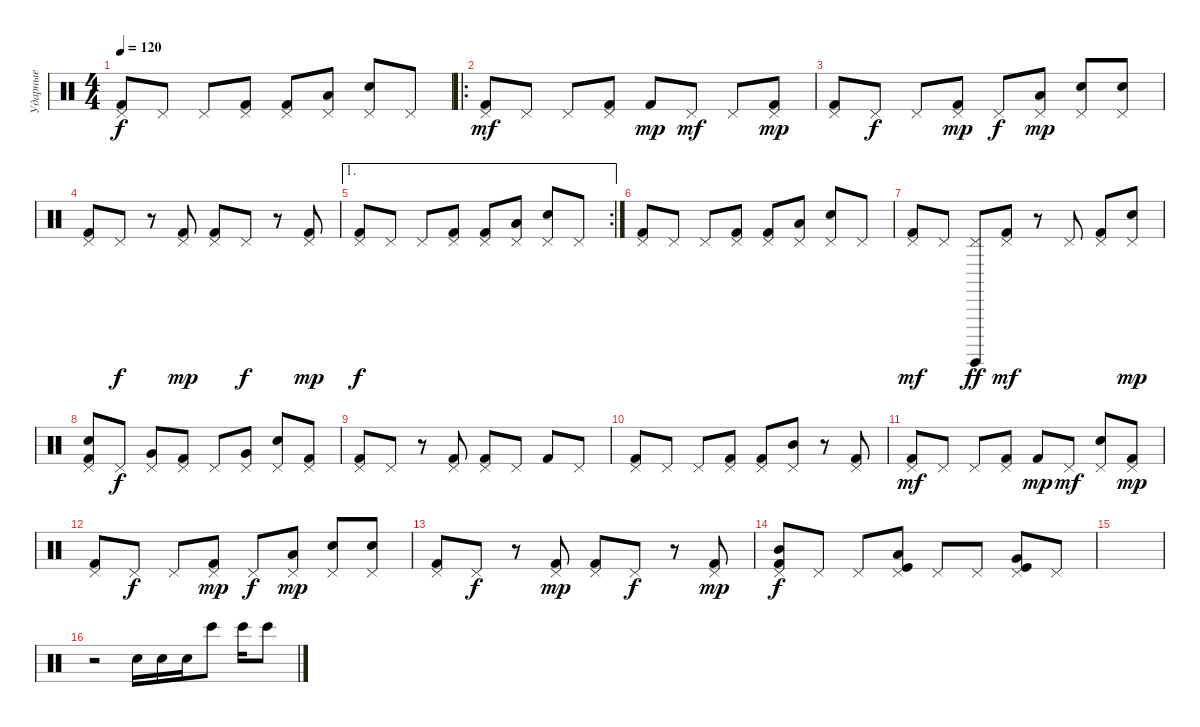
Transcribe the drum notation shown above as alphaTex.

\track ("Ударные" "Ударные") {instrument percussion}
\staff {score}
\articulation defaults
\ts (4 4)
\tempo 120
\clef neutral
\ks c
("Pedal Hi-Hat (hit)" "Kick (hit) 2").8{dy f} "Pedal Hi-Hat (hit)".8 "Pedal Hi-Hat (hit)".8 ("Pedal Hi-Hat (hit)" "Kick (hit) 2").8 ("Pedal Hi-Hat (hit)" "Kick (hit) 2").8 ("Pedal Hi-Hat (hit)" "Low Tom (hit)").8 ("Pedal Hi-Hat (hit)" "Electric Snare (hit)").8 "Pedal Hi-Hat (hit)".8 |
\ro
("Pedal Hi-Hat (hit)" "Kick (hit) 2").8{dy mf} "Pedal Hi-Hat (hit)".8 "Pedal Hi-Hat (hit)".8 ("Pedal Hi-Hat (hit)" "Kick (hit) 2").8 "Kick (hit) 2".8{dy mp} "Pedal Hi-Hat (hit)".8{dy mf} "Pedal Hi-Hat (hit)".8 ("Pedal Hi-Hat (hit)" "Kick (hit) 2").8{dy mp} |
("Pedal Hi-Hat (hit)" "Kick (hit) 2").8 "Pedal Hi-Hat (hit)".8{dy f} "Pedal Hi-Hat (hit)".8 ("Pedal Hi-Hat (hit)" "Kick (hit) 2").8{dy mp} "Pedal Hi-Hat (hit)".8{dy f} ("Pedal Hi-Hat (hit)" "Low Floor Tom (hit)").8{dy mp} ("Pedal Hi-Hat (hit)" "Snare (hit) 2").8 ("Pedal Hi-Hat (hit)" "Snare (hit) 2").8 |
("Pedal Hi-Hat (hit)" "Kick (hit) 2").8 "Pedal Hi-Hat (hit)".8{dy f} r.8 ("Pedal Hi-Hat (hit)" "Kick (hit) 2").8{dy mp} ("Pedal Hi-Hat (hit)" "Kick (hit) 2").8 "Pedal Hi-Hat (hit)".8{dy f} r.8 ("Pedal Hi-Hat (hit)" "Kick (hit) 2").8{dy mp} |
\ae 1
\rc 2
("Pedal Hi-Hat (hit)" "Kick (hit) 2").8{dy f} "Pedal Hi-Hat (hit)".8 "Pedal Hi-Hat (hit)".8 ("Pedal Hi-Hat (hit)" "Kick (hit) 2").8 ("Pedal Hi-Hat (hit)" "Kick (hit) 2").8 ("Pedal Hi-Hat (hit)" "Low Tom (hit)").8 ("Pedal Hi-Hat (hit)" "Electric Snare (hit)").8 "Pedal Hi-Hat (hit)".8 |
("Pedal Hi-Hat (hit)" "Kick (hit) 2").8 "Pedal Hi-Hat (hit)".8 "Pedal Hi-Hat (hit)".8 ("Pedal Hi-Hat (hit)" "Kick (hit) 2").8 ("Pedal Hi-Hat (hit)" "Kick (hit) 2").8 ("Pedal Hi-Hat (hit)" "Low Tom (hit)").8 ("Pedal Hi-Hat (hit)" "Electric Snare (hit)").8 "Pedal Hi-Hat (hit)".8 |
("Pedal Hi-Hat (hit)" "Kick (hit) 2").8{dy mf} "Pedal Hi-Hat (hit)".8 ("Pedal Hi-Hat (hit)" "Surdo (hit)").8{dy ff} ("Pedal Hi-Hat (hit)" "Kick (hit) 2").8{dy mf} r.8 "Pedal Hi-Hat (hit)".8 ("Pedal Hi-Hat (hit)" "Kick (hit) 2").8 ("Pedal Hi-Hat (hit)" "Electric Snare (hit)").8{dy mp} |
("Pedal Hi-Hat (hit)" "Snare (hit) 2" "Kick (hit) 2").8 "Pedal Hi-Hat (hit)".8{dy f} ("Pedal Hi-Hat (hit)" "Very Low Tom (hit)").8 ("Pedal Hi-Hat (hit)" "Kick (hit) 2").8 "Pedal Hi-Hat (hit)".8 ("Pedal Hi-Hat (hit)" "Very Low Tom (hit)").8 ("Pedal Hi-Hat (hit)" "Electric Snare (hit)").8 ("Pedal Hi-Hat (hit)" "Kick (hit) 2").8 |
("Pedal Hi-Hat (hit)" "Kick (hit) 2").8 "Pedal Hi-Hat (hit)".8 r.8 ("Pedal Hi-Hat (hit)" "Kick (hit) 2").8 ("Pedal Hi-Hat (hit)" "Kick (hit) 2").8 "Pedal Hi-Hat (hit)".8 "Kick (hit) 2".8 "Pedal Hi-Hat (hit)".8 |
("Pedal Hi-Hat (hit)" "Kick (hit) 2").8 "Pedal Hi-Hat (hit)".8 "Pedal Hi-Hat (hit)".8 ("Pedal Hi-Hat (hit)" "Kick (hit) 2").8 ("Pedal Hi-Hat (hit)" "Kick (hit) 2").8 ("Pedal Hi-Hat (hit)" "Mid Tom (hit)").8 r.8 ("Pedal Hi-Hat (hit)" "Kick (hit) 2").8 |
("Pedal Hi-Hat (hit)" "Kick (hit) 2").8{dy mf} "Pedal Hi-Hat (hit)".8 "Pedal Hi-Hat (hit)".8 ("Pedal Hi-Hat (hit)" "Kick (hit) 2").8 "Kick (hit) 2".8{dy mp} "Pedal Hi-Hat (hit)".8{dy mf} ("Pedal Hi-Hat (hit)" "Snare (hit) 2").8 ("Pedal Hi-Hat (hit)" "Kick (hit) 2").8{dy mp} |
("Pedal Hi-Hat (hit)" "Kick (hit) 2").8 "Pedal Hi-Hat (hit)".8{dy f} "Pedal Hi-Hat (hit)".8 ("Pedal Hi-Hat (hit)" "Kick (hit) 2").8{dy mp} "Pedal Hi-Hat (hit)".8{dy f} ("Pedal Hi-Hat (hit)" "Low Floor Tom (hit)").8{dy mp} ("Pedal Hi-Hat (hit)" "Snare (hit) 2").8 ("Pedal Hi-Hat (hit)" "Snare (hit) 2").8 |
("Pedal Hi-Hat (hit)" "Kick (hit) 2").8 "Pedal Hi-Hat (hit)".8{dy f} r.8 ("Pedal Hi-Hat (hit)" "Kick (hit) 2").8{dy mp} ("Pedal Hi-Hat (hit)" "Kick (hit) 2").8 "Pedal Hi-Hat (hit)".8{dy f} r.8 ("Pedal Hi-Hat (hit)" "Kick (hit) 2").8{dy mp} |
("Pedal Hi-Hat (hit)" "Mid Tom (hit)" "Kick (hit) 2").8{dy f} "Pedal Hi-Hat (hit)".8 "Pedal Hi-Hat (hit)".8 ("Pedal Hi-Hat (hit)" "Low Tom (hit)" "Kick (hit)").8 "Pedal Hi-Hat (hit)".8 "Pedal Hi-Hat (hit)".8 ("Pedal Hi-Hat (hit)" "Very Low Tom (hit)" "Kick (hit)").8 "Pedal Hi-Hat (hit)".8 |
|
r.2 "Hand Clap (hit)".16 "Hand Clap (hit)".16 "Hand Clap (hit)".16 "Bongo High (hit)".8 "Bongo High (hit)".16 "Bongo High (hit)".8
